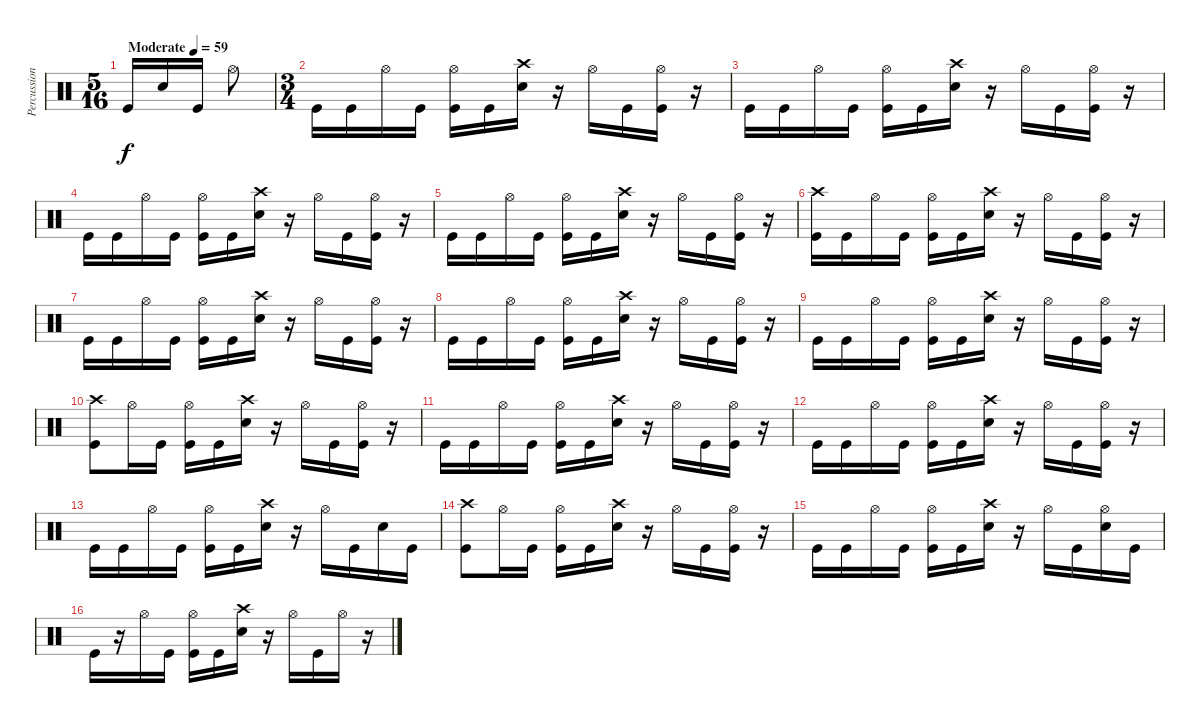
\track ("Percussion" "Percussion") {instrument percussion}
\staff {score}
\articulation defaults
\ts (5 16)
\tempo (59 "Moderate")
\clef neutral
\ks c "Kick (hit)".16{dy f} "Electric Snare (hit)".16 "Kick (hit)".16 "Hi-Hat (open)".8
|
\ts (3 4)
"Kick (hit)".16 "Kick (hit)".16 "Hi-Hat (open)".16 "Kick (hit)".16 ("Hi-Hat (open)" "Kick (hit)").16 "Kick (hit)".16 ("Crash high (hit)" "Electric Snare (hit)").16 r.16 "Hi-Hat (open)".16 "Kick (hit)".16 ("Hi-Hat (open)" "Kick (hit)").16 r.16 |
"Kick (hit)".16 "Kick (hit)".16 "Hi-Hat (open)".16 "Kick (hit)".16 ("Hi-Hat (open)" "Kick (hit)").16 "Kick (hit)".16 ("Crash high (hit)" "Electric Snare (hit)").16 r.16 "Hi-Hat (open)".16 "Kick (hit)".16 ("Hi-Hat (open)" "Kick (hit)").16 r.16 |
"Kick (hit)".16 "Kick (hit)".16 "Hi-Hat (open)".16 "Kick (hit)".16 ("Hi-Hat (open)" "Kick (hit)").16 "Kick (hit)".16 ("Crash high (hit)" "Electric Snare (hit)").16 r.16 "Hi-Hat (open)".16 "Kick (hit)".16 ("Hi-Hat (open)" "Kick (hit)").16 r.16 |
"Kick (hit)".16 "Kick (hit)".16 "Hi-Hat (open)".16 "Kick (hit)".16 ("Hi-Hat (open)" "Kick (hit)").16 "Kick (hit)".16 ("Crash high (hit)" "Electric Snare (hit)").16 r.16 "Hi-Hat (open)".16 "Kick (hit)".16 ("Hi-Hat (open)" "Kick (hit)").16 r.16 |
("Crash high (hit)" "Kick (hit)").16 "Kick (hit)".16 "Hi-Hat (open)".16 "Kick (hit)".16 ("Hi-Hat (open)" "Kick (hit)").16 "Kick (hit)".16 ("Crash high (hit)" "Electric Snare (hit)").16 r.16 "Hi-Hat (open)".16 "Kick (hit)".16 ("Hi-Hat (open)" "Kick (hit)").16 r.16 |
"Kick (hit)".16 "Kick (hit)".16 "Hi-Hat (open)".16 "Kick (hit)".16 ("Hi-Hat (open)" "Kick (hit)").16 "Kick (hit)".16 ("Crash high (hit)" "Electric Snare (hit)").16 r.16 "Hi-Hat (open)".16 "Kick (hit)".16 ("Hi-Hat (open)" "Kick (hit)").16 r.16 |
"Kick (hit)".16 "Kick (hit)".16 "Hi-Hat (open)".16 "Kick (hit)".16 ("Hi-Hat (open)" "Kick (hit)").16 "Kick (hit)".16 ("Crash high (hit)" "Electric Snare (hit)").16 r.16 "Hi-Hat (open)".16 "Kick (hit)".16 ("Hi-Hat (open)" "Kick (hit)").16 r.16 |
"Kick (hit)".16 "Kick (hit)".16 "Hi-Hat (open)".16 "Kick (hit)".16 ("Hi-Hat (open)" "Kick (hit)").16 "Kick (hit)".16 ("Crash high (hit)" "Electric Snare (hit)").16 r.16 "Hi-Hat (open)".16 "Kick (hit)".16 ("Hi-Hat (open)" "Kick (hit)").16 r.16 |
("Crash high (hit)" "Kick (hit)").8 "Hi-Hat (open)".16 "Kick (hit)".16 ("Hi-Hat (open)" "Kick (hit)").16 "Kick (hit)".16 ("Crash high (hit)" "Electric Snare (hit)").16 r.16 "Hi-Hat (open)".16 "Kick (hit)".16 ("Hi-Hat (open)" "Kick (hit)").16 r.16 |
"Kick (hit)".16 "Kick (hit)".16 "Hi-Hat (open)".16 "Kick (hit)".16 ("Hi-Hat (open)" "Kick (hit)").16 "Kick (hit)".16 ("Crash high (hit)" "Electric Snare (hit)").16 r.16 "Hi-Hat (open)".16 "Kick (hit)".16 ("Hi-Hat (open)" "Kick (hit)").16 r.16 |
"Kick (hit)".16 "Kick (hit)".16 "Hi-Hat (open)".16 "Kick (hit)".16 ("Hi-Hat (open)" "Kick (hit)").16 "Kick (hit)".16 ("Crash high (hit)" "Electric Snare (hit)").16 r.16 "Hi-Hat (open)".16 "Kick (hit)".16 ("Hi-Hat (open)" "Kick (hit)").16 r.16 |
"Kick (hit)".16 "Kick (hit)".16 "Hi-Hat (open)".16 "Kick (hit)".16 ("Hi-Hat (open)" "Kick (hit)").16 "Kick (hit)".16 ("Crash high (hit)" "Electric Snare (hit)").16 r.16 "Hi-Hat (open)".16 "Kick (hit)".16 "Electric Snare (hit)".16 "Kick (hit)".16 |
("Crash high (hit)" "Kick (hit)").8 "Hi-Hat (open)".16 "Kick (hit)".16 ("Hi-Hat (open)" "Kick (hit)").16 "Kick (hit)".16 ("Crash high (hit)" "Electric Snare (hit)").16 r.16 "Hi-Hat (open)".16 "Kick (hit)".16 ("Hi-Hat (open)" "Kick (hit)").16 r.16 |
"Kick (hit)".16 "Kick (hit)".16 "Hi-Hat (open)".16 "Kick (hit)".16 ("Hi-Hat (open)" "Kick (hit)").16 "Kick (hit)".16 ("Crash high (hit)" "Electric Snare (hit)").16 r.16 "Hi-Hat (open)".16 "Kick (hit)".16 ("Hi-Hat (open)" "Electric Snare (hit)").16 "Kick (hit)".16 |
"Kick (hit)".16 r.16 "Hi-Hat (open)".16 "Kick (hit)".16 ("Hi-Hat (open)" "Kick (hit)").16 "Kick (hit)".16 ("Crash high (hit)" "Electric Snare (hit)").16 r.16 "Hi-Hat (open)".16 "Kick (hit)".16 "Hi-Hat (open)".16 r.16
